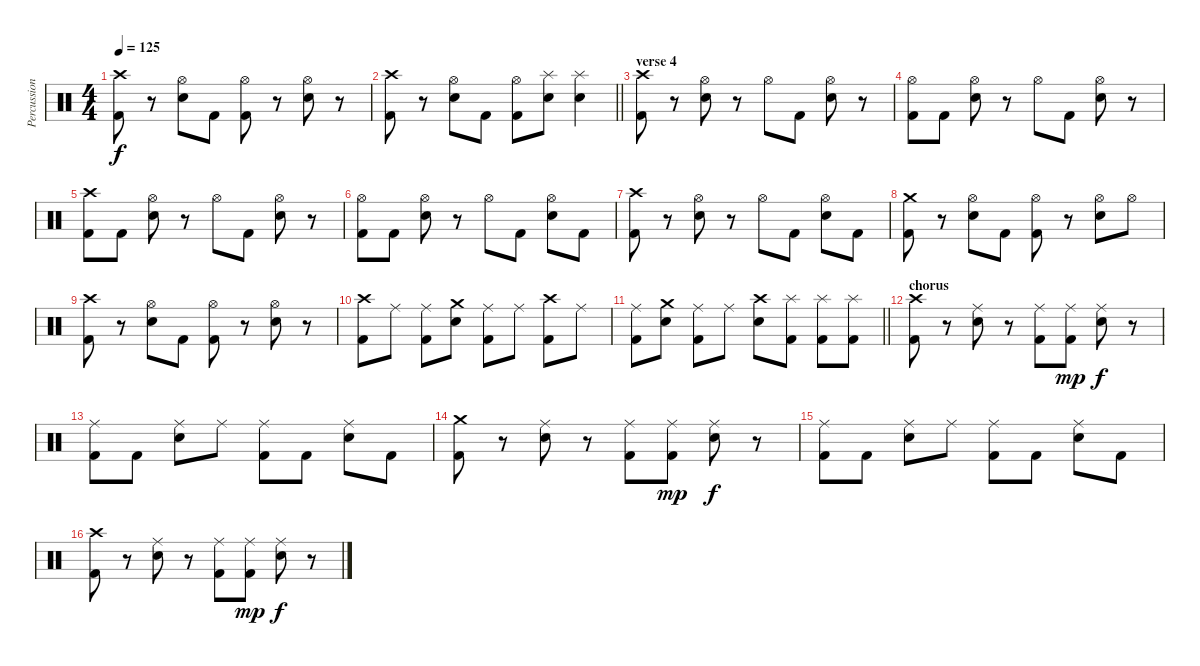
\track ("Percussion" "Percussion") {instrument percussion}
\staff {score}
\articulation defaults
\ts (4 4)
\tempo 125
\clef neutral
\ks c
("Crash high (hit)" "Kick (hit) 2").8{dy f} r.8 ("Hi-Hat (open)" "Snare (hit) 2").8 "Kick (hit) 2".8 ("Hi-Hat (open)" "Kick (hit) 2").8 r.8 ("Hi-Hat (open)" "Snare (hit) 2").8 r.8 |
\barLineRight lightlight
("Crash high (hit)" "Kick (hit) 2").8 r.8 ("Hi-Hat (open)" "Snare (hit) 2").8 "Kick (hit) 2".8 ("Hi-Hat (open)" "Kick (hit) 2").8 ("Splash (hit)" "Snare (hit) 2").8 ("Splash (hit)" "Snare (hit) 2").4 |
\section ("" "verse 4")
("Crash high (hit)" "Kick (hit) 2").8 r.8 ("Hi-Hat (open)" "Snare (hit) 2").8 r.8 "Hi-Hat (open)".8 "Kick (hit) 2".8 ("Hi-Hat (open)" "Snare (hit) 2").8 r.8 |
("Hi-Hat (open)" "Kick (hit) 2").8 "Kick (hit) 2".8 ("Hi-Hat (open)" "Snare (hit) 2").8 r.8 "Hi-Hat (open)".8 "Kick (hit) 2".8 ("Hi-Hat (open)" "Snare (hit) 2").8 r.8 |
("Crash high (hit)" "Kick (hit) 2").8 "Kick (hit) 2".8 ("Hi-Hat (open)" "Snare (hit) 2").8 r.8 "Hi-Hat (open)".8 "Kick (hit) 2".8 ("Hi-Hat (open)" "Snare (hit) 2").8 r.8 |
("Hi-Hat (open)" "Kick (hit) 2").8 "Kick (hit) 2".8 ("Hi-Hat (open)" "Snare (hit) 2").8 r.8 "Hi-Hat (open)".8 "Kick (hit) 2".8 ("Hi-Hat (open)" "Snare (hit) 2").8 "Kick (hit) 2".8 |
("Crash high (hit)" "Kick (hit) 2").8 r.8 ("Hi-Hat (open)" "Snare (hit) 2").8 r.8 "Hi-Hat (open)".8 "Kick (hit) 2".8 ("Hi-Hat (open)" "Snare (hit) 2").8 "Kick (hit) 2".8 |
("Crash medium (hit)" "Kick (hit) 2").8 r.8 ("Hi-Hat (open)" "Snare (hit) 2").8 "Kick (hit) 2".8 ("Hi-Hat (open)" "Kick (hit) 2").8 r.8 ("Hi-Hat (open)" "Snare (hit) 2").8 "Hi-Hat (open)".8 |
("Crash high (hit)" "Kick (hit) 2").8 r.8 ("Hi-Hat (open)" "Snare (hit) 2").8 "Kick (hit) 2".8 ("Hi-Hat (open)" "Kick (hit) 2").8 r.8 ("Hi-Hat (open)" "Snare (hit) 2").8 r.8 |
("Crash high (hit)" "Kick (hit) 2").8 "Ride (middle)".8 ("Ride (middle)" "Kick (hit) 2").8 ("Crash medium (hit)" "Snare (hit) 2").8 ("Ride (middle)" "Kick (hit) 2").8 "Ride (middle)".8 ("Crash high (hit)" "Kick (hit) 2").8 "Ride (middle)".8 |
\barLineRight lightlight
("Ride (middle)" "Kick (hit) 2").8 ("Crash medium (hit)" "Snare (hit) 2").8 ("Ride (middle)" "Kick (hit) 2").8 "Ride (middle)".8 ("Crash high (hit)" "Snare (hit) 2").8 ("Splash (hit)" "Kick (hit) 2").8 ("Splash (hit)" "Kick (hit) 2").8 ("Splash (hit)" "Kick (hit) 2").8 |
\section ("" "chorus")
("Crash high (hit)" "Kick (hit) 2").8 r.8 ("Ride (middle)" "Snare (hit) 2").8 r.8 ("Ride (middle)" "Kick (hit) 2").8 ("Ride (middle)" "Kick (hit) 2").8{dy mp} ("Ride (middle)" "Snare (hit) 2").8{dy f} r.8 |
("Ride (middle)" "Kick (hit) 2").8 "Kick (hit) 2".8 ("Ride (middle)" "Snare (hit) 2").8 "Ride (middle)".8 ("Ride (middle)" "Kick (hit) 2").8 "Kick (hit) 2".8 ("Ride (middle)" "Snare (hit) 2").8 "Kick (hit) 2".8 |
("Crash medium (hit)" "Kick (hit) 2").8 r.8 ("Ride (middle)" "Snare (hit) 2").8 r.8 ("Ride (middle)" "Kick (hit) 2").8 ("Ride (middle)" "Kick (hit) 2").8{dy mp} ("Ride (middle)" "Snare (hit) 2").8{dy f} r.8 |
("Ride (middle)" "Kick (hit) 2").8 "Kick (hit) 2".8 ("Ride (middle)" "Snare (hit) 2").8 "Ride (middle)".8 ("Ride (middle)" "Kick (hit) 2").8 "Kick (hit) 2".8 ("Ride (middle)" "Snare (hit) 2").8 "Kick (hit) 2".8 |
("Crash high (hit)" "Kick (hit) 2").8 r.8 ("Ride (middle)" "Snare (hit) 2").8 r.8 ("Ride (middle)" "Kick (hit) 2").8 ("Ride (middle)" "Kick (hit) 2").8{dy mp} ("Ride (middle)" "Snare (hit) 2").8{dy f} r.8
